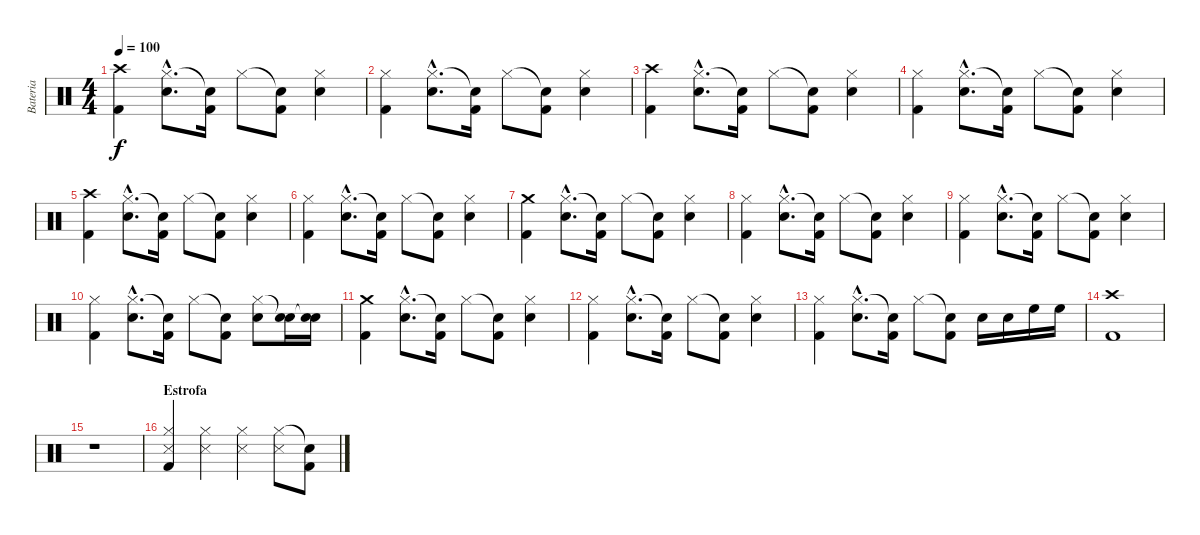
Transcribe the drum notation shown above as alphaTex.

\track ("Bateria" "Bateria") {instrument percussion}
\staff {score}
\articulation defaults
\ts (4 4)
\tempo 100
\clef neutral
\ks c
("Crash high (hit)" "Kick (hit) 2").4{dy f} ("Hi-Hat (closed)"{hac} "Electric Snare (hit)"{hac}).8{d} ("Snare (hit)"{t} "Kick (hit) 2").16 "Hi-Hat (closed)".8 ("Snare (hit)"{t} "Kick (hit) 2").8 ("Hi-Hat (closed)" "Electric Snare (hit)").4 |
("Hi-Hat (closed)" "Kick (hit) 2").4 ("Hi-Hat (closed)"{hac} "Electric Snare (hit)"{hac}).8{d} ("Snare (hit)"{t} "Kick (hit) 2").16 "Hi-Hat (closed)".8 ("Snare (hit)"{t} "Kick (hit) 2").8 ("Hi-Hat (closed)" "Electric Snare (hit)").4 |
("Crash high (hit)" "Kick (hit) 2").4 ("Hi-Hat (closed)"{hac} "Electric Snare (hit)"{hac}).8{d} ("Snare (hit)"{t} "Kick (hit) 2").16 "Hi-Hat (closed)".8 ("Snare (hit)"{t} "Kick (hit) 2").8 ("Hi-Hat (closed)" "Electric Snare (hit)").4 |
("Hi-Hat (closed)" "Kick (hit) 2").4 ("Hi-Hat (closed)"{hac} "Electric Snare (hit)"{hac}).8{d} ("Snare (hit)"{t} "Kick (hit) 2").16 "Hi-Hat (closed)".8 ("Snare (hit)"{t} "Kick (hit) 2").8 ("Hi-Hat (closed)" "Electric Snare (hit)").4 |
("Crash high (hit)" "Kick (hit) 2").4 ("Hi-Hat (closed)"{hac} "Electric Snare (hit)"{hac}).8{d} ("Snare (hit)"{t} "Kick (hit) 2").16 "Hi-Hat (closed)".8 ("Snare (hit)"{t} "Kick (hit) 2").8 ("Hi-Hat (closed)" "Electric Snare (hit)").4 |
("Hi-Hat (closed)" "Kick (hit) 2").4 ("Hi-Hat (closed)"{hac} "Electric Snare (hit)"{hac}).8{d} ("Snare (hit)"{t} "Kick (hit) 2").16 "Hi-Hat (closed)".8 ("Snare (hit)"{t} "Kick (hit) 2").8 ("Hi-Hat (closed)" "Electric Snare (hit)").4 |
("Crash medium (hit)" "Kick (hit) 2").4 ("Hi-Hat (closed)"{hac} "Electric Snare (hit)"{hac}).8{d} ("Snare (hit)"{t} "Kick (hit) 2").16 "Hi-Hat (closed)".8 ("Snare (hit)"{t} "Kick (hit) 2").8 ("Hi-Hat (closed)" "Electric Snare (hit)").4 |
("Hi-Hat (closed)" "Kick (hit) 2").4 ("Hi-Hat (closed)"{hac} "Electric Snare (hit)"{hac}).8{d} ("Snare (hit)"{t} "Kick (hit) 2").16 "Hi-Hat (closed)".8 ("Snare (hit)"{t} "Kick (hit) 2").8 ("Hi-Hat (closed)" "Electric Snare (hit)").4 |
("Hi-Hat (closed)" "Kick (hit) 2").4 ("Hi-Hat (closed)"{hac} "Electric Snare (hit)"{hac}).8{d} ("Snare (hit)"{t} "Kick (hit) 2").16 "Hi-Hat (closed)".8 ("Snare (hit)"{t} "Kick (hit) 2").8 ("Hi-Hat (closed)" "Electric Snare (hit)").4 |
("Hi-Hat (closed)" "Kick (hit) 2").4 ("Hi-Hat (closed)"{hac} "Electric Snare (hit)"{hac}).8{d} ("Snare (hit)"{t} "Kick (hit) 2").16 "Hi-Hat (closed)".8 ("Snare (hit)"{t} "Kick (hit) 2").8 ("Hi-Hat (closed)" "Electric Snare (hit)").8 ("Snare (hit)"{t} "Electric Snare (hit)").16 ("Snare (hit)"{t} "Electric Snare (hit)").16 |
("Crash medium (hit)" "Kick (hit) 2").4 ("Hi-Hat (closed)"{hac} "Electric Snare (hit)"{hac}).8{d} ("Snare (hit)"{t} "Kick (hit) 2").16 "Hi-Hat (closed)".8 ("Snare (hit)"{t} "Kick (hit) 2").8 ("Hi-Hat (closed)" "Electric Snare (hit)").4 |
("Hi-Hat (closed)" "Kick (hit) 2").4 ("Hi-Hat (closed)"{hac} "Electric Snare (hit)"{hac}).8{d} ("Snare (hit)"{t} "Kick (hit) 2").16 "Hi-Hat (closed)".8 ("Snare (hit)"{t} "Kick (hit) 2").8 ("Hi-Hat (closed)" "Electric Snare (hit)").4 |
("Hi-Hat (closed)" "Kick (hit) 2").4 ("Hi-Hat (closed)"{hac} "Electric Snare (hit)"{hac}).8{d} ("Snare (hit)"{t} "Kick (hit) 2").16 "Hi-Hat (closed)".8 ("Snare (hit)"{t} "Kick (hit) 2").8 "Electric Snare (hit)".16 "Electric Snare (hit)".16 "High Floor Tom (hit)".16 "High Floor Tom (hit)".16 |
("Crash high (hit)" "Kick (hit) 2").1 |
r.1 |
\section ("" "Estrofa")
("Hi-Hat (closed)" "Snare (side stick) 3" "Kick (hit) 2").4 ("Hi-Hat (closed)" "Snare (side stick) 3").4 ("Hi-Hat (closed)" "Snare (side stick) 3").4 ("Hi-Hat (closed)" "Snare (side stick) 3").8 ("Snare (hit)"{t} "Kick (hit) 2").8
